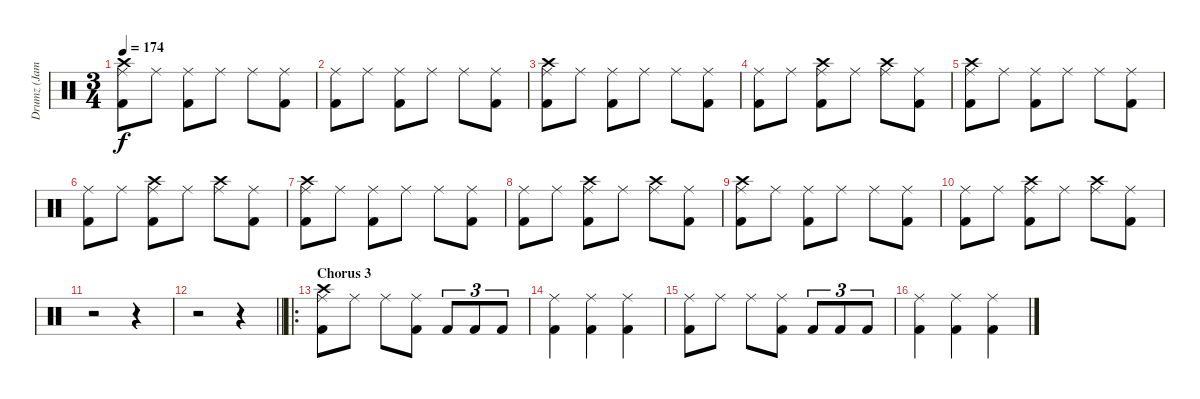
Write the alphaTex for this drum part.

\track ("Drumz (James Kottak)" "Drumz (Jam") {instrument percussion}
\staff {score}
\articulation defaults
\ts (3 4)
\tempo 174
\clef neutral
\ks c
("Ride (middle)" "Crash high (hit)" "Kick (hit) 2").8{dy f} "Ride (middle)".8 ("Ride (middle)" "Kick (hit) 2").8 "Ride (middle)".8 "Ride (middle)".8 ("Ride (middle)" "Kick (hit) 2").8 |
("Ride (middle)" "Kick (hit) 2").8 "Ride (middle)".8 ("Ride (middle)" "Kick (hit) 2").8 "Ride (middle)".8 "Ride (middle)".8 ("Ride (middle)" "Kick (hit) 2").8 |
("Ride (middle)" "Crash high (hit)" "Kick (hit) 2").8 "Ride (middle)".8 ("Ride (middle)" "Kick (hit) 2").8 "Ride (middle)".8 "Ride (middle)".8 ("Ride (middle)" "Kick (hit) 2").8 |
("Ride (middle)" "Kick (hit) 2").8 "Ride (middle)".8 ("Ride (middle)" "Crash high (hit)" "Kick (hit) 2").8 "Ride (middle)".8 ("Ride (middle)" "Crash high (hit)").8 ("Ride (middle)" "Kick (hit) 2").8 |
("Ride (middle)" "Crash high (hit)" "Kick (hit) 2").8 "Ride (middle)".8 ("Ride (middle)" "Kick (hit) 2").8 "Ride (middle)".8 "Ride (middle)".8 ("Ride (middle)" "Kick (hit) 2").8 |
("Ride (middle)" "Kick (hit) 2").8 "Ride (middle)".8 ("Ride (middle)" "Crash high (hit)" "Kick (hit) 2").8 "Ride (middle)".8 ("Ride (middle)" "Crash high (hit)").8 ("Ride (middle)" "Kick (hit) 2").8 |
("Ride (middle)" "Crash high (hit)" "Kick (hit) 2").8 "Ride (middle)".8 ("Ride (middle)" "Kick (hit) 2").8 "Ride (middle)".8 "Ride (middle)".8 ("Ride (middle)" "Kick (hit) 2").8 |
("Ride (middle)" "Kick (hit) 2").8 "Ride (middle)".8 ("Ride (middle)" "Crash high (hit)" "Kick (hit) 2").8 "Ride (middle)".8 ("Ride (middle)" "Crash high (hit)").8 ("Ride (middle)" "Kick (hit) 2").8 |
("Ride (middle)" "Crash high (hit)" "Kick (hit) 2").8 "Ride (middle)".8 ("Ride (middle)" "Kick (hit) 2").8 "Ride (middle)".8 "Ride (middle)".8 ("Ride (middle)" "Kick (hit) 2").8 |
("Ride (middle)" "Kick (hit) 2").8 "Ride (middle)".8 ("Ride (middle)" "Crash high (hit)" "Kick (hit) 2").8 "Ride (middle)".8 ("Ride (middle)" "Crash high (hit)").8 ("Ride (middle)" "Kick (hit) 2").8 |
r.2 r.4 |
\barLineRight lightlight
r.2 r.4 |
\ro
\section ("" "Chorus 3")
("Ride (middle)" "Crash high (hit)" "Kick (hit) 2").8 "Ride (middle)".8 "Ride (middle)".8 ("Ride (middle)" "Kick (hit) 2").8 "Kick (hit) 2".8{tu (3 2)} "Kick (hit) 2".8{tu (3 2)} "Kick (hit) 2".8{tu (3 2)} |
("Ride (middle)" "Kick (hit) 2").4 ("Kick (hit) 2" "Ride (middle)").4 ("Ride (middle)" "Kick (hit) 2").4 |
("Ride (middle)" "Kick (hit) 2").8 "Ride (middle)".8 "Ride (middle)".8 ("Ride (middle)" "Kick (hit) 2").8 "Kick (hit) 2".8{tu (3 2)} "Kick (hit) 2".8{tu (3 2)} "Kick (hit) 2".8{tu (3 2)} |
("Ride (middle)" "Kick (hit) 2").4 ("Kick (hit) 2" "Ride (middle)").4 ("Ride (middle)" "Kick (hit) 2").4
